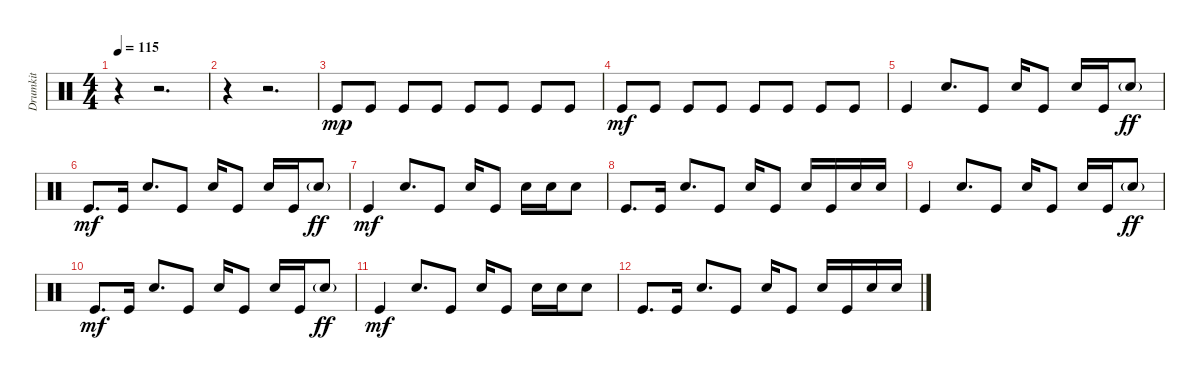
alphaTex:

\track ("Drumkit" "Drumkit") {instrument percussion}
\staff {score}
\articulation defaults
\ts (4 4)
\tempo 115
\clef neutral
\ks c
r.4{dy mf} r.2{d} |
r.4 r.2{d} |
"Kick (hit)".8{dy mp} "Kick (hit)".8 "Kick (hit)".8 "Kick (hit)".8 "Kick (hit)".8 "Kick (hit)".8 "Kick (hit)".8 "Kick (hit)".8 |
"Kick (hit)".8{dy mf} "Kick (hit)".8 "Kick (hit)".8 "Kick (hit)".8 "Kick (hit)".8 "Kick (hit)".8 "Kick (hit)".8 "Kick (hit)".8 |
"Kick (hit)".4 "Snare (hit) 2".8{d} "Kick (hit)".8 "Snare (hit) 2".16 "Kick (hit)".8 "Snare (hit) 2".16 "Kick (hit)".16 "Snare (hit) 2"{g}.8{dy ff} |
"Kick (hit)".8{d dy mf} "Kick (hit)".16 "Snare (hit) 2".8{d} "Kick (hit)".8 "Snare (hit) 2".16 "Kick (hit)".8 "Snare (hit) 2".16 "Kick (hit)".16 "Snare (hit) 2"{g}.8{dy ff} |
"Kick (hit)".4{dy mf} "Snare (hit) 2".8{d} "Kick (hit)".8 "Snare (hit) 2".16 "Kick (hit)".8 "Snare (hit) 2".16 "Snare (hit) 2".16 "Snare (hit) 2".8 |
"Kick (hit)".8{d} "Kick (hit)".16 "Snare (hit) 2".8{d} "Kick (hit)".8 "Snare (hit) 2".16 "Kick (hit)".8 "Snare (hit) 2".16 "Kick (hit)".16 "Snare (hit) 2".16 "Snare (hit) 2".16 |
"Kick (hit)".4 "Snare (hit) 2".8{d} "Kick (hit)".8 "Snare (hit) 2".16 "Kick (hit)".8 "Snare (hit) 2".16 "Kick (hit)".16 "Snare (hit) 2"{g}.8{dy ff} |
"Kick (hit)".8{d dy mf} "Kick (hit)".16 "Snare (hit) 2".8{d} "Kick (hit)".8 "Snare (hit) 2".16 "Kick (hit)".8 "Snare (hit) 2".16 "Kick (hit)".16 "Snare (hit) 2"{g}.8{dy ff} |
"Kick (hit)".4{dy mf} "Snare (hit) 2".8{d} "Kick (hit)".8 "Snare (hit) 2".16 "Kick (hit)".8 "Snare (hit) 2".16 "Snare (hit) 2".16 "Snare (hit) 2".8 |
"Kick (hit)".8{d} "Kick (hit)".16 "Snare (hit) 2".8{d} "Kick (hit)".8 "Snare (hit) 2".16 "Kick (hit)".8 "Snare (hit) 2".16 "Kick (hit)".16 "Snare (hit) 2".16 "Snare (hit) 2".16
